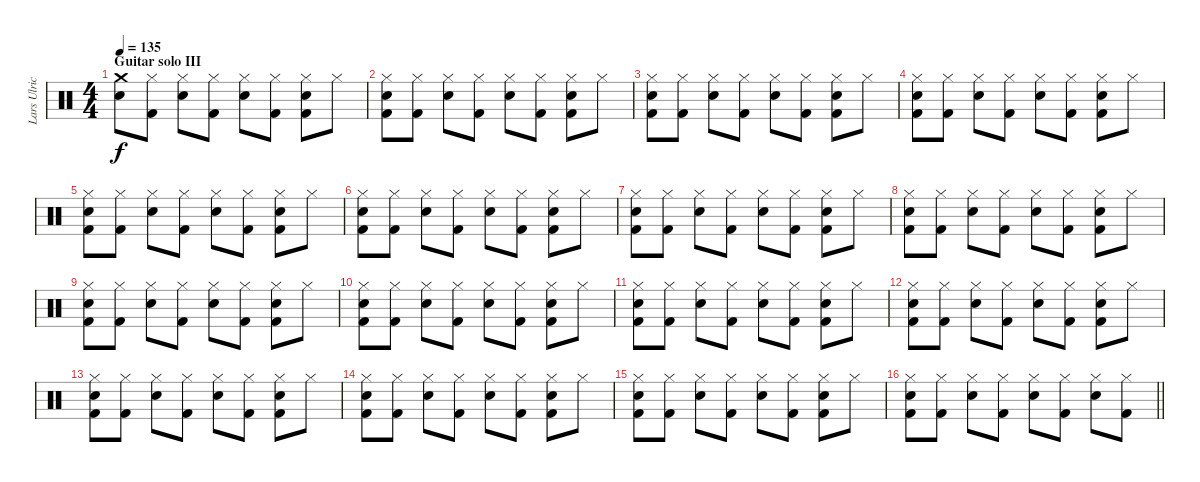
\track ("Lars Ulrich (Drums)" "Lars Ulric") {instrument percussion}
\staff {score}
\articulation defaults
\ts (4 4)
\section ("" "Guitar solo III")
\tempo 135
\clef neutral
\ks c
("Crash medium (hit)" "Snare (hit) 2").8{dy f} ("Kick (hit) 2" "Hi-Hat (closed)").8 ("Snare (hit) 2" "Hi-Hat (closed)").8 ("Kick (hit) 2" "Hi-Hat (closed)").8 ("Hi-Hat (closed)" "Snare (hit) 2").8 ("Hi-Hat (closed)" "Kick (hit) 2").8 ("Snare (hit) 2" "Hi-Hat (closed)" "Kick (hit) 2").8 "Hi-Hat (closed)".8 |
("Kick (hit) 2" "Snare (hit) 2" "Hi-Hat (closed)").8 ("Hi-Hat (closed)" "Kick (hit) 2").8 ("Snare (hit) 2" "Hi-Hat (closed)").8 ("Kick (hit) 2" "Hi-Hat (closed)").8 ("Hi-Hat (closed)" "Snare (hit) 2").8 ("Kick (hit) 2" "Hi-Hat (closed)").8 ("Kick (hit) 2" "Hi-Hat (closed)" "Snare (hit) 2").8 "Hi-Hat (closed)".8 |
("Kick (hit) 2" "Snare (hit) 2" "Hi-Hat (closed)").8 ("Hi-Hat (closed)" "Kick (hit) 2").8 ("Snare (hit) 2" "Hi-Hat (closed)").8 ("Kick (hit) 2" "Hi-Hat (closed)").8 ("Hi-Hat (closed)" "Snare (hit) 2").8 ("Kick (hit) 2" "Hi-Hat (closed)").8 ("Kick (hit) 2" "Hi-Hat (closed)" "Snare (hit) 2").8 "Hi-Hat (closed)".8 |
("Kick (hit) 2" "Snare (hit) 2" "Hi-Hat (closed)").8 ("Hi-Hat (closed)" "Kick (hit) 2").8 ("Snare (hit) 2" "Hi-Hat (closed)").8 ("Kick (hit) 2" "Hi-Hat (closed)").8 ("Hi-Hat (closed)" "Snare (hit) 2").8 ("Kick (hit) 2" "Hi-Hat (closed)").8 ("Kick (hit) 2" "Hi-Hat (closed)" "Snare (hit) 2").8 "Hi-Hat (closed)".8 |
("Kick (hit) 2" "Snare (hit) 2" "Hi-Hat (closed)").8 ("Hi-Hat (closed)" "Kick (hit) 2").8 ("Snare (hit) 2" "Hi-Hat (closed)").8 ("Kick (hit) 2" "Hi-Hat (closed)").8 ("Hi-Hat (closed)" "Snare (hit) 2").8 ("Kick (hit) 2" "Hi-Hat (closed)").8 ("Kick (hit) 2" "Hi-Hat (closed)" "Snare (hit) 2").8 "Hi-Hat (closed)".8 |
("Kick (hit) 2" "Snare (hit) 2" "Hi-Hat (closed)").8 ("Hi-Hat (closed)" "Kick (hit) 2").8 ("Snare (hit) 2" "Hi-Hat (closed)").8 ("Kick (hit) 2" "Hi-Hat (closed)").8 ("Hi-Hat (closed)" "Snare (hit) 2").8 ("Kick (hit) 2" "Hi-Hat (closed)").8 ("Kick (hit) 2" "Hi-Hat (closed)" "Snare (hit) 2").8 "Hi-Hat (closed)".8 |
("Kick (hit) 2" "Snare (hit) 2" "Hi-Hat (closed)").8 ("Hi-Hat (closed)" "Kick (hit) 2").8 ("Snare (hit) 2" "Hi-Hat (closed)").8 ("Kick (hit) 2" "Hi-Hat (closed)").8 ("Hi-Hat (closed)" "Snare (hit) 2").8 ("Kick (hit) 2" "Hi-Hat (closed)").8 ("Kick (hit) 2" "Hi-Hat (closed)" "Snare (hit) 2").8 "Hi-Hat (closed)".8 |
("Kick (hit) 2" "Snare (hit) 2" "Hi-Hat (closed)").8 ("Hi-Hat (closed)" "Kick (hit) 2").8 ("Snare (hit) 2" "Hi-Hat (closed)").8 ("Kick (hit) 2" "Hi-Hat (closed)").8 ("Hi-Hat (closed)" "Snare (hit) 2").8 ("Kick (hit) 2" "Hi-Hat (closed)").8 ("Kick (hit) 2" "Hi-Hat (closed)" "Snare (hit) 2").8 "Hi-Hat (closed)".8 |
("Kick (hit) 2" "Snare (hit) 2" "Hi-Hat (closed)").8 ("Hi-Hat (closed)" "Kick (hit) 2").8 ("Snare (hit) 2" "Hi-Hat (closed)").8 ("Kick (hit) 2" "Hi-Hat (closed)").8 ("Hi-Hat (closed)" "Snare (hit) 2").8 ("Kick (hit) 2" "Hi-Hat (closed)").8 ("Kick (hit) 2" "Hi-Hat (closed)" "Snare (hit) 2").8 "Hi-Hat (closed)".8 |
("Kick (hit) 2" "Snare (hit) 2" "Hi-Hat (closed)").8 ("Hi-Hat (closed)" "Kick (hit) 2").8 ("Snare (hit) 2" "Hi-Hat (closed)").8 ("Kick (hit) 2" "Hi-Hat (closed)").8 ("Hi-Hat (closed)" "Snare (hit) 2").8 ("Kick (hit) 2" "Hi-Hat (closed)").8 ("Kick (hit) 2" "Hi-Hat (closed)" "Snare (hit) 2").8 "Hi-Hat (closed)".8 |
("Kick (hit) 2" "Snare (hit) 2" "Hi-Hat (closed)").8 ("Hi-Hat (closed)" "Kick (hit) 2").8 ("Snare (hit) 2" "Hi-Hat (closed)").8 ("Kick (hit) 2" "Hi-Hat (closed)").8 ("Hi-Hat (closed)" "Snare (hit) 2").8 ("Kick (hit) 2" "Hi-Hat (closed)").8 ("Kick (hit) 2" "Hi-Hat (closed)" "Snare (hit) 2").8 "Hi-Hat (closed)".8 |
("Kick (hit) 2" "Snare (hit) 2" "Hi-Hat (closed)").8 ("Hi-Hat (closed)" "Kick (hit) 2").8 ("Snare (hit) 2" "Hi-Hat (closed)").8 ("Kick (hit) 2" "Hi-Hat (closed)").8 ("Hi-Hat (closed)" "Snare (hit) 2").8 ("Kick (hit) 2" "Hi-Hat (closed)").8 ("Kick (hit) 2" "Hi-Hat (closed)" "Snare (hit) 2").8 "Hi-Hat (closed)".8 |
("Kick (hit) 2" "Snare (hit) 2" "Hi-Hat (closed)").8 ("Hi-Hat (closed)" "Kick (hit) 2").8 ("Snare (hit) 2" "Hi-Hat (closed)").8 ("Kick (hit) 2" "Hi-Hat (closed)").8 ("Hi-Hat (closed)" "Snare (hit) 2").8 ("Kick (hit) 2" "Hi-Hat (closed)").8 ("Kick (hit) 2" "Hi-Hat (closed)" "Snare (hit) 2").8 "Hi-Hat (closed)".8 |
("Kick (hit) 2" "Snare (hit) 2" "Hi-Hat (closed)").8 ("Hi-Hat (closed)" "Kick (hit) 2").8 ("Snare (hit) 2" "Hi-Hat (closed)").8 ("Kick (hit) 2" "Hi-Hat (closed)").8 ("Hi-Hat (closed)" "Snare (hit) 2").8 ("Kick (hit) 2" "Hi-Hat (closed)").8 ("Kick (hit) 2" "Hi-Hat (closed)" "Snare (hit) 2").8 "Hi-Hat (closed)".8 |
("Kick (hit) 2" "Snare (hit) 2" "Hi-Hat (closed)").8 ("Hi-Hat (closed)" "Kick (hit) 2").8 ("Snare (hit) 2" "Hi-Hat (closed)").8 ("Kick (hit) 2" "Hi-Hat (closed)").8 ("Hi-Hat (closed)" "Snare (hit) 2").8 ("Kick (hit) 2" "Hi-Hat (closed)").8 ("Kick (hit) 2" "Hi-Hat (closed)" "Snare (hit) 2").8 "Hi-Hat (closed)".8 |
\barLineRight lightlight
("Kick (hit) 2" "Snare (hit) 2" "Hi-Hat (closed)").8 ("Hi-Hat (closed)" "Kick (hit) 2").8 ("Snare (hit) 2" "Hi-Hat (closed)").8 ("Kick (hit) 2" "Hi-Hat (closed)").8 ("Hi-Hat (closed)" "Snare (hit) 2").8 ("Kick (hit) 2" "Hi-Hat (closed)").8 ("Hi-Hat (closed)" "Snare (hit) 2").8 ("Kick (hit) 2" "Hi-Hat (closed)").8
